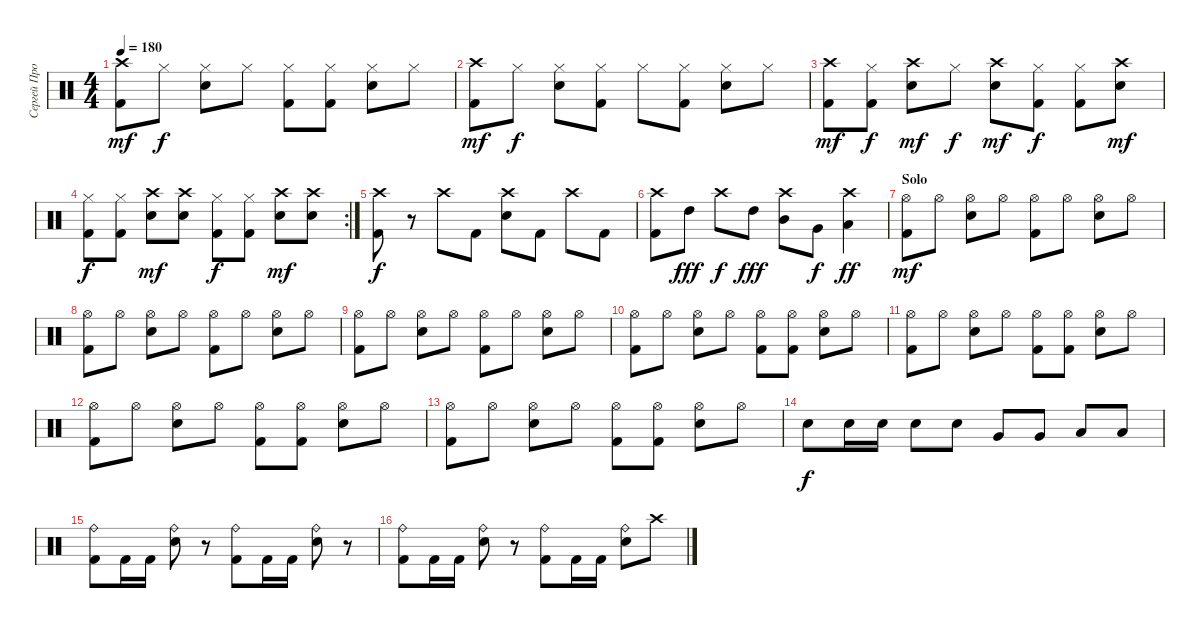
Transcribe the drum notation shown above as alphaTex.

\track ("Сергей Прокофьев" "Сергей Про") {instrument percussion}
\staff {score}
\articulation defaults
\ts (4 4)
\tempo 180
\clef neutral
\ks c
("Crash high (hit)" "Kick (hit) 2").8{dy mf} "Hi-Hat (closed)".8{dy f} ("Hi-Hat (closed)" "Snare (hit) 2").8 "Hi-Hat (closed)".8 ("Hi-Hat (closed)" "Kick (hit) 2").8 ("Hi-Hat (closed)" "Kick (hit) 2").8 ("Hi-Hat (closed)" "Snare (hit) 2").8 "Hi-Hat (closed)".8 |
("Crash high (hit)" "Kick (hit) 2").8{dy mf} "Hi-Hat (closed)".8{dy f} ("Hi-Hat (closed)" "Snare (hit) 2").8 ("Hi-Hat (closed)" "Kick (hit) 2").8 "Hi-Hat (closed)".8 ("Hi-Hat (closed)" "Kick (hit) 2").8 ("Hi-Hat (closed)" "Snare (hit) 2").8 "Hi-Hat (closed)".8 |
("Crash high (hit)" "Kick (hit) 2").8{dy mf} ("Hi-Hat (closed)" "Kick (hit) 2").8{dy f} ("Crash high (hit)" "Snare (hit) 2").8{dy mf} "Hi-Hat (closed)".8{dy f} ("Crash high (hit)" "Snare (hit) 2").8{dy mf} ("Hi-Hat (closed)" "Kick (hit) 2").8{dy f} ("Hi-Hat (closed)" "Kick (hit) 2").8 ("Crash high (hit)" "Snare (hit) 2").8{dy mf} |
\rc 2
("Hi-Hat (closed)" "Kick (hit) 2").8{dy f} ("Hi-Hat (closed)" "Kick (hit) 2").8 ("Crash high (hit)" "Snare (hit) 2").8{dy mf} ("Crash high (hit)" "Snare (hit) 2").8 ("Hi-Hat (closed)" "Kick (hit) 2").8{dy f} ("Hi-Hat (closed)" "Kick (hit) 2").8 ("Crash high (hit)" "Snare (hit) 2").8{dy mf} ("Crash high (hit)" "Snare (hit) 2").8 |
("Crash high (hit)" "Kick (hit) 2").8{dy f} r.8 "Crash high (hit)".8 "Kick (hit) 2".8 ("Crash high (hit)" "Snare (hit) 2").8 "Kick (hit) 2".8 "Crash high (hit)".8 "Kick (hit) 2".8 |
("Crash high (hit)" "Kick (hit) 2").8 "High Tom (hit)".8{dy fff} "Crash high (hit)".8{dy f} "High Tom (hit)".8{dy fff} ("Crash high (hit)" "Mid Tom (hit)").8 "Very Low Tom (hit)".8{dy f} ("Crash high (hit)" "Low Floor Tom (hit)").4{dy ff} |
\section ("" "Solo")
("Hi-Hat (open)" "Kick (hit) 2").8{dy mf} "Hi-Hat (open)".8 ("Hi-Hat (open)" "Snare (hit) 2").8 "Hi-Hat (open)".8 ("Hi-Hat (open)" "Kick (hit) 2").8 "Hi-Hat (open)".8 ("Hi-Hat (open)" "Snare (hit) 2").8 "Hi-Hat (open)".8 |
("Hi-Hat (open)" "Kick (hit) 2").8 "Hi-Hat (open)".8 ("Hi-Hat (open)" "Snare (hit) 2").8 "Hi-Hat (open)".8 ("Hi-Hat (open)" "Kick (hit) 2").8 "Hi-Hat (open)".8 ("Hi-Hat (open)" "Snare (hit) 2").8 "Hi-Hat (open)".8 |
("Hi-Hat (open)" "Kick (hit) 2").8 "Hi-Hat (open)".8 ("Hi-Hat (open)" "Snare (hit) 2").8 "Hi-Hat (open)".8 ("Hi-Hat (open)" "Kick (hit) 2").8 "Hi-Hat (open)".8 ("Hi-Hat (open)" "Snare (hit) 2").8 "Hi-Hat (open)".8 |
("Hi-Hat (open)" "Kick (hit) 2").8 "Hi-Hat (open)".8 ("Hi-Hat (open)" "Snare (hit) 2").8 "Hi-Hat (open)".8 ("Hi-Hat (open)" "Kick (hit) 2").8 ("Hi-Hat (open)" "Kick (hit) 2").8 ("Hi-Hat (open)" "Snare (hit) 2").8 "Hi-Hat (open)".8 |
("Hi-Hat (open)" "Kick (hit) 2").8 "Hi-Hat (open)".8 ("Hi-Hat (open)" "Snare (hit) 2").8 "Hi-Hat (open)".8 ("Hi-Hat (open)" "Kick (hit) 2").8 ("Hi-Hat (open)" "Kick (hit) 2").8 ("Hi-Hat (open)" "Snare (hit) 2").8 "Hi-Hat (open)".8 |
("Hi-Hat (open)" "Kick (hit) 2").8 "Hi-Hat (open)".8 ("Hi-Hat (open)" "Snare (hit) 2").8 "Hi-Hat (open)".8 ("Hi-Hat (open)" "Kick (hit) 2").8 ("Hi-Hat (open)" "Kick (hit) 2").8 ("Hi-Hat (open)" "Snare (hit) 2").8 "Hi-Hat (open)".8 |
("Hi-Hat (open)" "Kick (hit) 2").8 "Hi-Hat (open)".8 ("Hi-Hat (open)" "Snare (hit) 2").8 "Hi-Hat (open)".8 ("Hi-Hat (open)" "Kick (hit) 2").8 ("Hi-Hat (open)" "Kick (hit) 2").8 ("Hi-Hat (open)" "Snare (hit) 2").8 "Hi-Hat (open)".8 |
"Snare (hit) 2".8{dy f} "Snare (hit) 2".16 "Snare (hit) 2".16 "Snare (hit) 2".8 "Snare (hit) 2".8 "Very Low Tom (hit)".8 "Very Low Tom (hit)".8 "Low Floor Tom (hit)".8 "Low Floor Tom (hit)".8 |
("Ride (bell)" "Kick (hit) 2").8 "Kick (hit) 2".16 "Kick (hit) 2".16 ("Ride (bell)" "Snare (hit) 2").8 r.8 ("Ride (bell)" "Kick (hit) 2").8 "Kick (hit) 2".16 "Kick (hit) 2".16 ("Ride (bell)" "Snare (hit) 2").8 r.8 |
("Ride (bell)" "Kick (hit) 2").8 "Kick (hit) 2".16 "Kick (hit) 2".16 ("Ride (bell)" "Snare (hit) 2").8 r.8 ("Ride (bell)" "Kick (hit) 2").8 "Kick (hit) 2".16 "Kick (hit) 2".16 ("Ride (bell)" "Snare (hit) 2").8 "Crash high (hit)".8
